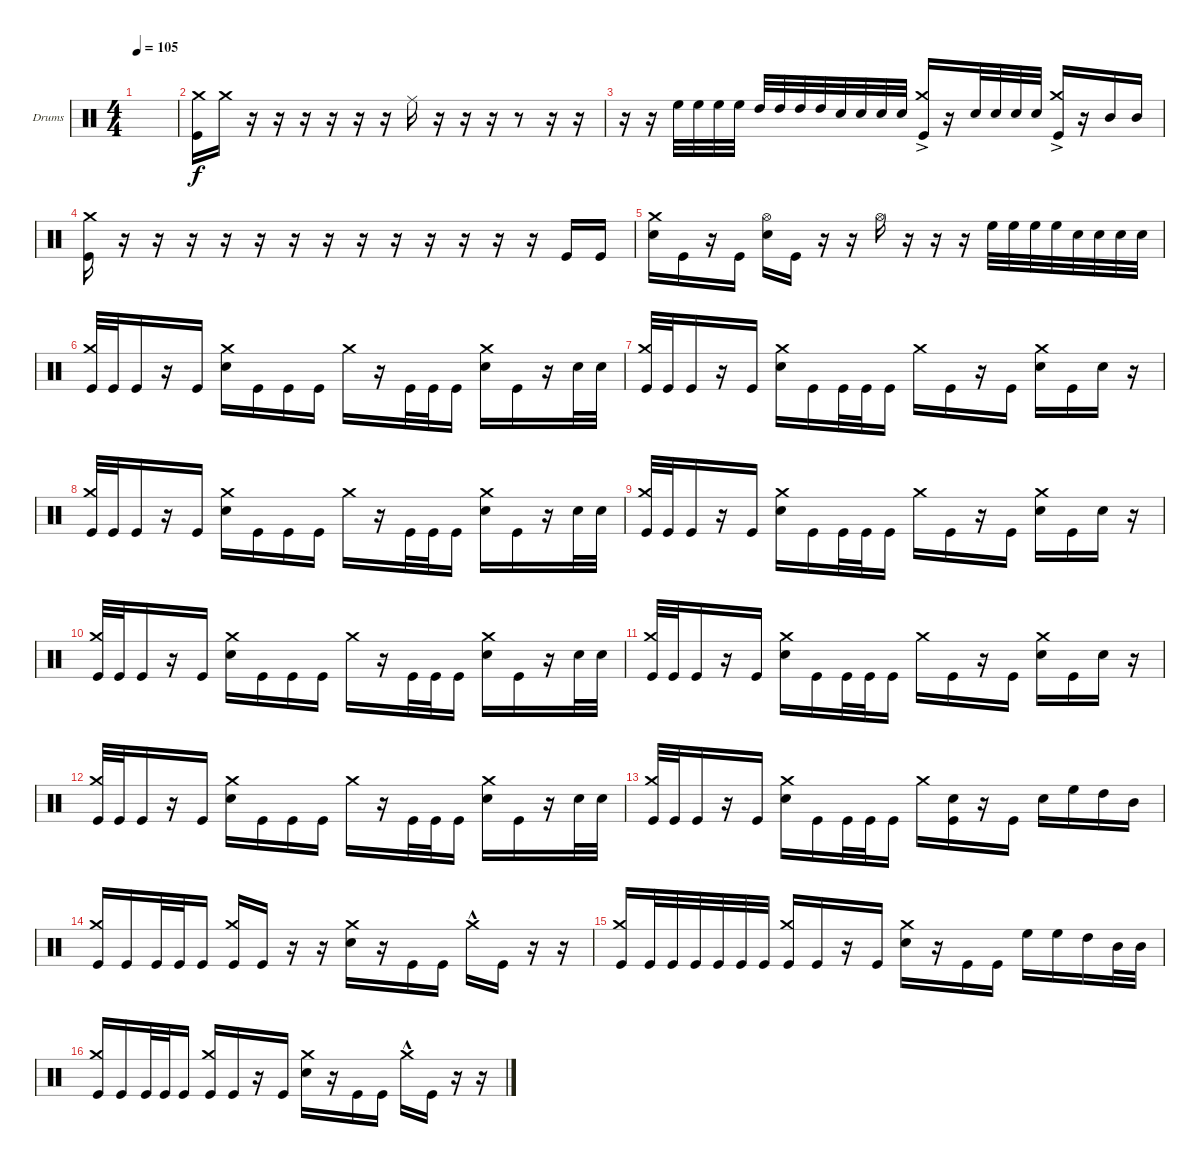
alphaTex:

\defaultSystemsLayout 4
\bracketExtendMode groupsimilarinstruments
\firstSystemTrackNameOrientation horizontal
\otherSystemsTrackNameOrientation horizontal
\track ("Drumkit" "Drums") {instrument percussion}
\staff {score}
\articulation defaults
\ts (4 4)
\tempo 105
\clef neutral
\ks c
|
\scale
0.353864 ("Kick (hit)" "Crash medium (hit)").16 "Crash medium (hit)".16 r.16 r.16 r.16 r.16 r.16 r.16 "Ride (middle)".16 r.16 r.16 r.16 r.8 r.16 r.16 |
\scale
0.382629 r.16 r.16 "High Floor Tom (hit)".32 "High Floor Tom (hit)".32 "High Floor Tom (hit)".32 "High Floor Tom (hit)".32 "High Tom (hit)".32 "High Tom (hit)".32 "High Tom (hit)".32 "High Tom (hit)".32 "Snare (hit) 2".32 "Snare (hit) 2".32 "Snare (hit) 2".32 "Snare (hit) 2".32 ("Kick (hit)"{ac} "Crash medium (hit)").16{beam invert} r.16 "Snare (hit) 2".32 "Snare (hit) 2".32 "Snare (hit) 2".32 "Snare (hit) 2".32 ("Kick (hit)"{ac} "Crash medium (hit)").16{beam invert} r.16 "Mid Tom (hit)".16 "Mid Tom (hit)".16 |
\scale
0.262911 ("Kick (hit)" "Crash medium (hit)").16 r.16 r.16 r.16 r.16 r.16 r.16 r.16 r.16 r.16 r.16 r.16 r.16 r.16 "Kick (hit)".16 "Kick (hit)".16 |
("Snare (hit) 2" "Crash medium (hit)").16 "Kick (hit)".16 r.16 "Kick (hit)".16 ("Snare (hit) 2" "Hi-Hat (open)").16 "Kick (hit)".16 r.16 r.16 "Hi-Hat (open)".16 r.16 r.16 r.16 "High Floor Tom (hit)".32 "High Floor Tom (hit)".32 "High Floor Tom (hit)".32 "High Floor Tom (hit)".32 "Snare (hit) 2".32 "Snare (hit) 2".32 "Snare (hit) 2".32 "Snare (hit) 2".32 |
("Kick (hit)" "Crash medium (hit)").32{beam invert} "Kick (hit)".32 "Kick (hit)".16 r.16 "Kick (hit)".16 ("Snare (hit) 2" "Crash medium (hit)").16 "Kick (hit)".16 "Kick (hit)".16 "Kick (hit)".16 "Crash medium (hit)".16 r.16 "Kick (hit)".32 "Kick (hit)".32 "Kick (hit)".16 ("Snare (hit) 2" "Crash medium (hit)").16 "Kick (hit)".16 r.16 "Snare (hit) 2".32 "Snare (hit) 2".32 |
("Crash medium (hit)" "Kick (hit)").32{beam invert} "Kick (hit)".32 "Kick (hit)".16 r.16 "Kick (hit)".16 ("Snare (hit) 2" "Crash medium (hit)").16 "Kick (hit)".16 "Kick (hit)".32 "Kick (hit)".32 "Kick (hit)".16 "Crash medium (hit)".16 "Kick (hit)".16 r.16 "Kick (hit)".16 ("Snare (hit) 2" "Crash medium (hit)").16 "Kick (hit)".16 "Snare (hit) 2".16 r.16 |
("Crash medium (hit)" "Kick (hit)").32{beam invert} "Kick (hit)".32 "Kick (hit)".16 r.16 "Kick (hit)".16 ("Snare (hit) 2" "Crash medium (hit)").16 "Kick (hit)".16 "Kick (hit)".16 "Kick (hit)".16 "Crash medium (hit)".16 r.16 "Kick (hit)".32 "Kick (hit)".32 "Kick (hit)".16 ("Snare (hit) 2" "Crash medium (hit)").16 "Kick (hit)".16 r.16 "Snare (hit) 2".32 "Snare (hit) 2".32 |
("Crash medium (hit)" "Kick (hit)").32{beam invert} "Kick (hit)".32 "Kick (hit)".16 r.16 "Kick (hit)".16 ("Snare (hit) 2" "Crash medium (hit)").16 "Kick (hit)".16 "Kick (hit)".32 "Kick (hit)".32 "Kick (hit)".16 "Crash medium (hit)".16 "Kick (hit)".16 r.16 "Kick (hit)".16 ("Snare (hit) 2" "Crash medium (hit)").16 "Kick (hit)".16 "Snare (hit) 2".16 r.16 |
("Crash medium (hit)" "Kick (hit)").32{beam invert} "Kick (hit)".32 "Kick (hit)".16 r.16 "Kick (hit)".16 ("Snare (hit) 2" "Crash medium (hit)").16 "Kick (hit)".16 "Kick (hit)".16 "Kick (hit)".16 "Crash medium (hit)".16 r.16 "Kick (hit)".32 "Kick (hit)".32 "Kick (hit)".16 ("Snare (hit) 2" "Crash medium (hit)").16 "Kick (hit)".16 r.16 "Snare (hit) 2".32 "Snare (hit) 2".32 |
("Crash medium (hit)" "Kick (hit)").32{beam invert} "Kick (hit)".32 "Kick (hit)".16 r.16 "Kick (hit)".16 ("Snare (hit) 2" "Crash medium (hit)").16 "Kick (hit)".16 "Kick (hit)".32 "Kick (hit)".32 "Kick (hit)".16 "Crash medium (hit)".16 "Kick (hit)".16 r.16 "Kick (hit)".16 ("Snare (hit) 2" "Crash medium (hit)").16 "Kick (hit)".16 "Snare (hit) 2".16 r.16 |
("Crash medium (hit)" "Kick (hit)").32{beam invert} "Kick (hit)".32 "Kick (hit)".16 r.16 "Kick (hit)".16 ("Snare (hit) 2" "Crash medium (hit)").16 "Kick (hit)".16 "Kick (hit)".16 "Kick (hit)".16 "Crash medium (hit)".16 r.16 "Kick (hit)".32 "Kick (hit)".32 "Kick (hit)".16 ("Snare (hit) 2" "Crash medium (hit)").16 "Kick (hit)".16 r.16 "Snare (hit) 2".32 "Snare (hit) 2".32 |
("Crash medium (hit)" "Kick (hit)").32{beam invert} "Kick (hit)".32 "Kick (hit)".16 r.16 "Kick (hit)".16 ("Snare (hit) 2" "Crash medium (hit)").16 "Kick (hit)".16 "Kick (hit)".32 "Kick (hit)".32 "Kick (hit)".16 "Crash medium (hit)".16 ("Kick (hit)" "Snare (hit) 2").16 r.16 "Kick (hit)".16 "Snare (hit) 2".16 "High Floor Tom (hit)".16 "High Tom (hit)".16 "Mid Tom (hit)".16 |
("Crash medium (hit)" "Kick (hit)").16 "Kick (hit)".16 "Kick (hit)".32 "Kick (hit)".32 "Kick (hit)".16 ("Kick (hit)" "Crash medium (hit)").16{beam invert} "Kick (hit)".16 r.16 r.16 ("Crash medium (hit)" "Snare (hit) 2").16 r.16 "Kick (hit)".16 "Kick (hit)".16 "Crash medium (hit)"{hac}.16 "Kick (hit)".16 r.16 r.16 |
("Crash medium (hit)" "Kick (hit)").16{beam invert} "Kick (hit)".32 "Kick (hit)".32 "Kick (hit)".32 "Kick (hit)".32 "Kick (hit)".32 "Kick (hit)".32 ("Kick (hit)" "Crash medium (hit)").16{beam invert} "Kick (hit)".16 r.16 "Kick (hit)".16 ("Snare (hit) 2" "Crash medium (hit)").16 r.16 "Kick (hit)".16 "Kick (hit)".16 "High Floor Tom (hit)".16 "High Floor Tom (hit)".16 "High Tom (hit)".16 "Mid Tom (hit)".32 "Mid Tom (hit)".32 |
("Crash medium (hit)" "Kick (hit)").16 "Kick (hit)".16 "Kick (hit)".32 "Kick (hit)".32 "Kick (hit)".16 ("Kick (hit)" "Crash medium (hit)").16{beam invert} "Kick (hit)".16 r.16 "Kick (hit)".16 ("Crash medium (hit)" "Snare (hit) 2").16 r.16 "Kick (hit)".16 "Kick (hit)".16 "Crash medium (hit)"{hac}.16 "Kick (hit)".16 r.16 r.16
